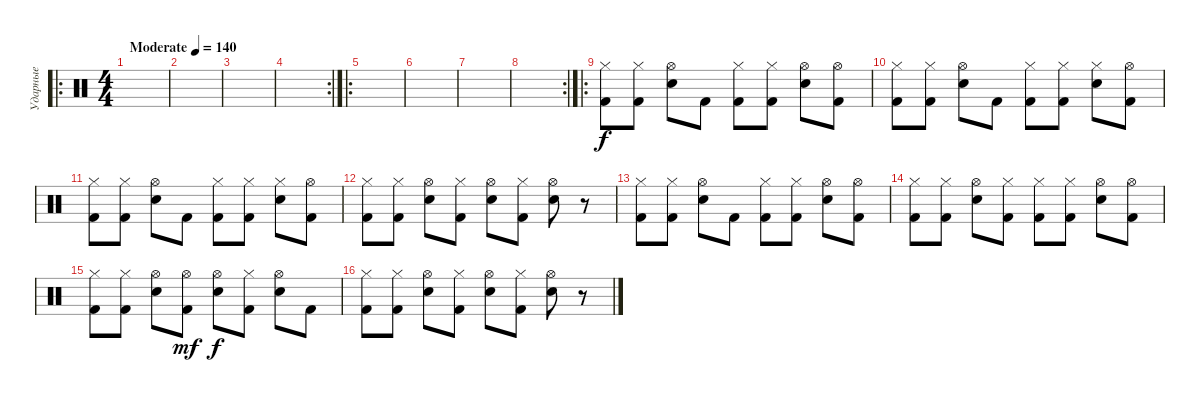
\track ("Ударные" "Ударные") {instrument percussion}
\staff {score}
\articulation defaults
\ro
\ts (4 4)
\tempo (140 "Moderate")
\clef neutral
\ks c
|
|
|
\rc 2
|
\ro
|
|
|
\rc 2
|
\ro
("Hi-Hat (closed)" "Kick (hit) 2").8 ("Hi-Hat (closed)" "Kick (hit) 2").8 ("Hi-Hat (open)" "Electric Snare (hit)").8 "Kick (hit) 2".8 ("Hi-Hat (closed)" "Kick (hit) 2").8 ("Hi-Hat (closed)" "Kick (hit) 2").8 ("Hi-Hat (open)" "Electric Snare (hit)").8 ("Hi-Hat (open)" "Kick (hit) 2").8 |
("Hi-Hat (closed)" "Kick (hit) 2").8 ("Hi-Hat (closed)" "Kick (hit) 2").8 ("Hi-Hat (open)" "Electric Snare (hit)").8 "Kick (hit) 2".8 ("Hi-Hat (closed)" "Kick (hit) 2").8 ("Hi-Hat (closed)" "Kick (hit) 2").8 ("Hi-Hat (closed)" "Electric Snare (hit)").8 ("Hi-Hat (open)" "Kick (hit) 2").8 |
("Hi-Hat (closed)" "Kick (hit) 2").8 ("Hi-Hat (closed)" "Kick (hit) 2").8 ("Hi-Hat (open)" "Electric Snare (hit)").8 "Kick (hit) 2".8 ("Hi-Hat (closed)" "Kick (hit) 2").8 ("Hi-Hat (closed)" "Kick (hit) 2").8 ("Hi-Hat (closed)" "Electric Snare (hit)").8 ("Hi-Hat (open)" "Kick (hit) 2").8 |
("Hi-Hat (closed)" "Kick (hit) 2").8 ("Hi-Hat (closed)" "Kick (hit) 2").8 ("Hi-Hat (open)" "Electric Snare (hit)").8 ("Hi-Hat (closed)" "Kick (hit) 2").8 ("Hi-Hat (open)" "Electric Snare (hit)").8 ("Hi-Hat (closed)" "Kick (hit) 2").8 ("Hi-Hat (open)" "Electric Snare (hit)").8 r.8 |
("Hi-Hat (closed)" "Kick (hit) 2").8 ("Hi-Hat (closed)" "Kick (hit) 2").8 ("Hi-Hat (open)" "Electric Snare (hit)").8 "Kick (hit) 2".8 ("Hi-Hat (closed)" "Kick (hit) 2").8 ("Hi-Hat (closed)" "Kick (hit) 2").8 ("Hi-Hat (open)" "Electric Snare (hit)").8 ("Hi-Hat (open)" "Kick (hit) 2").8 |
("Hi-Hat (closed)" "Kick (hit) 2").8 ("Hi-Hat (closed)" "Kick (hit) 2").8 ("Hi-Hat (open)" "Electric Snare (hit)").8 ("Hi-Hat (closed)" "Kick (hit) 2").8 ("Hi-Hat (closed)" "Kick (hit) 2").8 ("Hi-Hat (closed)" "Kick (hit) 2").8 ("Hi-Hat (open)" "Electric Snare (hit)").8 ("Hi-Hat (open)" "Kick (hit) 2").8 |
("Hi-Hat (closed)" "Kick (hit) 2").8 ("Hi-Hat (closed)" "Kick (hit) 2").8 ("Hi-Hat (open)" "Electric Snare (hit)").8 ("Hi-Hat (open)" "Kick (hit) 2").8{dy mf} ("Hi-Hat (open)" "Electric Snare (hit)").8{dy f} ("Hi-Hat (closed)" "Kick (hit) 2").8 ("Hi-Hat (open)" "Electric Snare (hit)").8 "Kick (hit) 2".8 |
("Hi-Hat (closed)" "Kick (hit) 2").8 ("Hi-Hat (closed)" "Kick (hit) 2").8 ("Hi-Hat (open)" "Electric Snare (hit)").8 ("Hi-Hat (closed)" "Kick (hit) 2").8 ("Hi-Hat (open)" "Electric Snare (hit)").8 ("Hi-Hat (closed)" "Kick (hit) 2").8 ("Hi-Hat (open)" "Electric Snare (hit)").8 r.8
